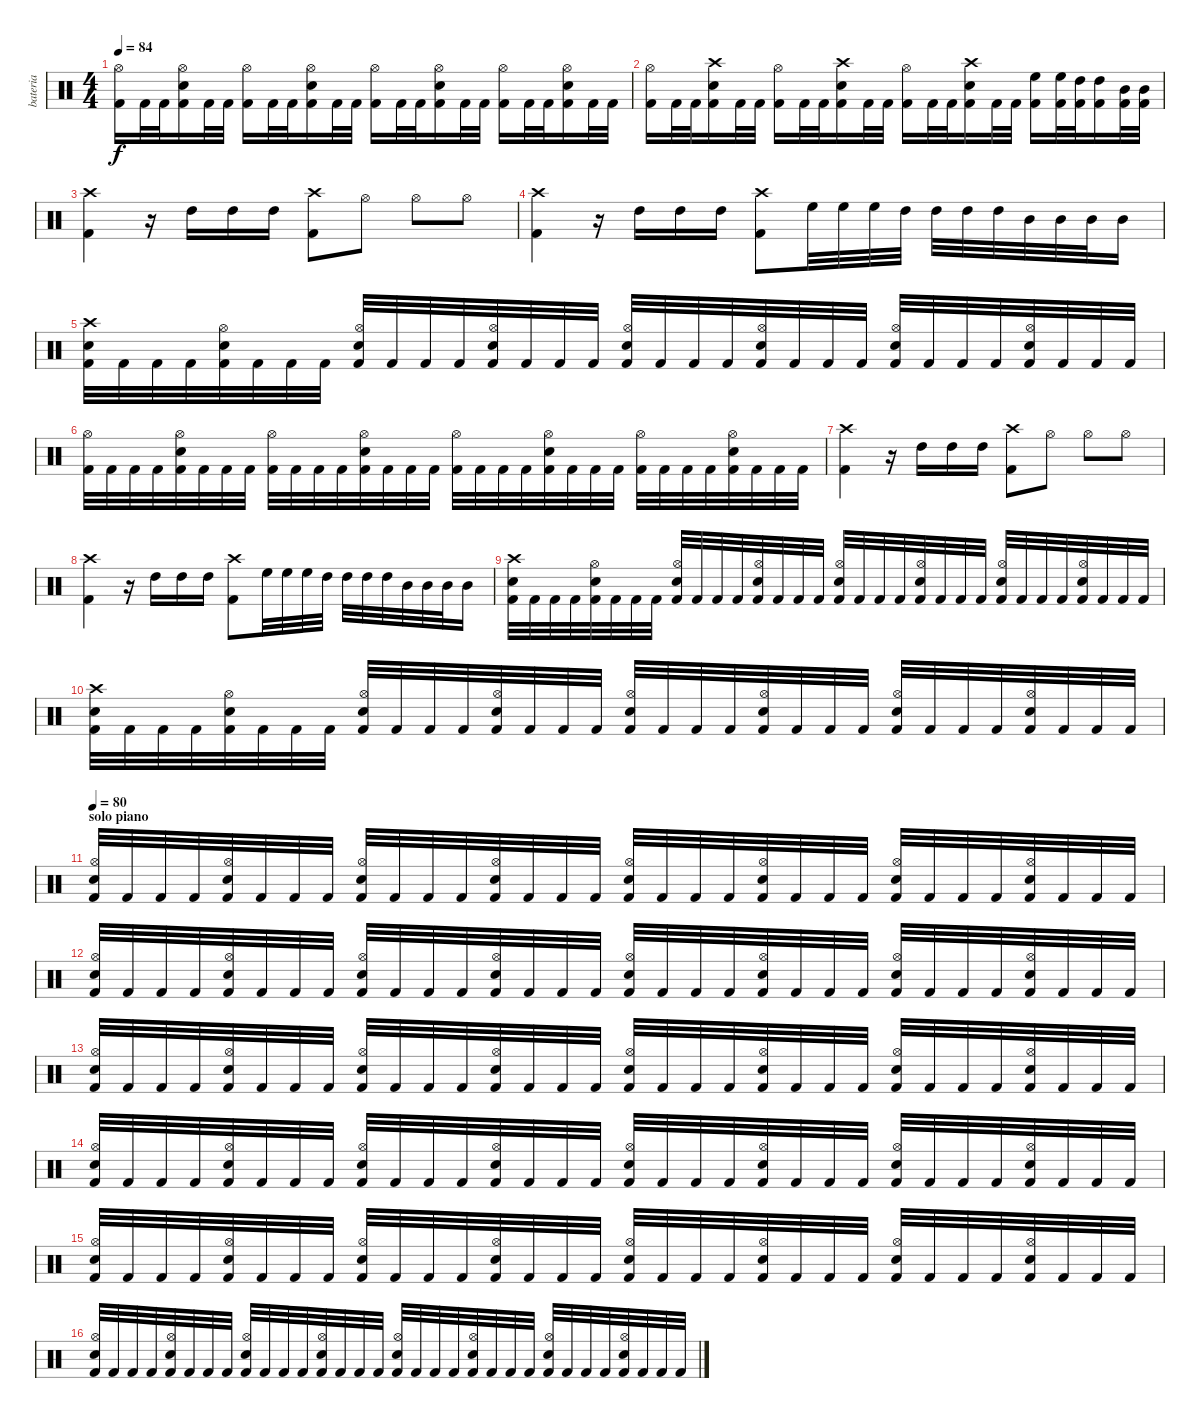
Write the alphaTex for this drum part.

\track ("bateria" "bateria") {instrument percussion}
\staff {score}
\articulation defaults
\ts (4 4)
\tempo 84
\clef neutral
\ks c
("Kick (hit) 2" "Hi-Hat (open)").16{dy f} "Kick (hit) 2".32 "Kick (hit) 2".32 ("Kick (hit) 2" "Electric Snare (hit)" "Hi-Hat (open)").16 "Kick (hit) 2".32 "Kick (hit) 2".32 ("Kick (hit) 2" "Hi-Hat (open)").16 "Kick (hit) 2".32 "Kick (hit) 2".32 ("Kick (hit) 2" "Electric Snare (hit)" "Hi-Hat (open)").16 "Kick (hit) 2".32 "Kick (hit) 2".32 ("Kick (hit) 2" "Hi-Hat (open)").16 "Kick (hit) 2".32 "Kick (hit) 2".32 ("Kick (hit) 2" "Electric Snare (hit)" "Hi-Hat (open)").16 "Kick (hit) 2".32 "Kick (hit) 2".32 ("Kick (hit) 2" "Hi-Hat (open)").16 "Kick (hit) 2".32 "Kick (hit) 2".32 ("Kick (hit) 2" "Electric Snare (hit)" "Hi-Hat (open)").16 "Kick (hit) 2".32 "Kick (hit) 2".32 |
("Kick (hit) 2" "Hi-Hat (open)").16 "Kick (hit) 2".32 "Kick (hit) 2".32 ("Kick (hit) 2" "Electric Snare (hit)" "Crash high (hit)").16 "Kick (hit) 2".32 "Kick (hit) 2".32 ("Kick (hit) 2" "Hi-Hat (open)").16 "Kick (hit) 2".32 "Kick (hit) 2".32 ("Kick (hit) 2" "Electric Snare (hit)" "Crash high (hit)").16 "Kick (hit) 2".32 "Kick (hit) 2".32 ("Kick (hit) 2" "Hi-Hat (open)").16 "Kick (hit) 2".32 "Kick (hit) 2".32 ("Kick (hit) 2" "Electric Snare (hit)" "Crash high (hit)").16 "Kick (hit) 2".32 "Kick (hit) 2".32 ("Kick (hit) 2" "High Floor Tom (hit)").16 ("Kick (hit) 2" "High Floor Tom (hit)").32 ("Kick (hit) 2" "High Tom (hit)").32 ("Kick (hit) 2" "High Tom (hit)").16 ("Kick (hit) 2" "Mid Tom (hit)").32 ("Kick (hit) 2" "Mid Tom (hit)").32 |
("Kick (hit) 2" "Crash high (hit)").4 r.16 "High Tom (hit)".16 "High Tom (hit)".16 "High Tom (hit)".16 ("Kick (hit) 2" "Crash high (hit)").8 "Hi-Hat (open)".8 "Hi-Hat (open)".8 "Hi-Hat (open)".8 |
("Kick (hit) 2" "Crash high (hit)").4 r.16 "High Tom (hit)".16 "High Tom (hit)".16 "High Tom (hit)".16 ("Kick (hit) 2" "Crash high (hit)").8 "High Floor Tom (hit)".32 "High Floor Tom (hit)".32 "High Floor Tom (hit)".32 "High Tom (hit)".32 "High Tom (hit)".32 "High Tom (hit)".32 "High Tom (hit)".32 "Mid Tom (hit)".32 "Mid Tom (hit)".32 "Mid Tom (hit)".32 "Mid Tom (hit)".16 |
("Kick (hit) 2" "Electric Snare (hit)" "Crash high (hit)").32 "Kick (hit) 2".32 "Kick (hit) 2".32 "Kick (hit) 2".32 ("Kick (hit) 2" "Electric Snare (hit)" "Hi-Hat (open)").32 "Kick (hit) 2".32 "Kick (hit) 2".32 "Kick (hit) 2".32 ("Kick (hit) 2" "Electric Snare (hit)" "Hi-Hat (open)").32 "Kick (hit) 2".32 "Kick (hit) 2".32 "Kick (hit) 2".32 ("Kick (hit) 2" "Electric Snare (hit)" "Hi-Hat (open)").32 "Kick (hit) 2".32 "Kick (hit) 2".32 "Kick (hit) 2".32 ("Kick (hit) 2" "Electric Snare (hit)" "Hi-Hat (open)").32 "Kick (hit) 2".32 "Kick (hit) 2".32 "Kick (hit) 2".32 ("Kick (hit) 2" "Electric Snare (hit)" "Hi-Hat (open)").32 "Kick (hit) 2".32 "Kick (hit) 2".32 "Kick (hit) 2".32 ("Kick (hit) 2" "Electric Snare (hit)" "Hi-Hat (open)").32 "Kick (hit) 2".32 "Kick (hit) 2".32 "Kick (hit) 2".32 ("Kick (hit) 2" "Electric Snare (hit)" "Hi-Hat (open)").32 "Kick (hit) 2".32 "Kick (hit) 2".32 "Kick (hit) 2".32 |
("Kick (hit) 2" "Hi-Hat (open)").32 "Kick (hit) 2".32 "Kick (hit) 2".32 "Kick (hit) 2".32 ("Kick (hit) 2" "Electric Snare (hit)" "Hi-Hat (open)").32 "Kick (hit) 2".32 "Kick (hit) 2".32 "Kick (hit) 2".32 ("Kick (hit) 2" "Hi-Hat (open)").32 "Kick (hit) 2".32 "Kick (hit) 2".32 "Kick (hit) 2".32 ("Kick (hit) 2" "Electric Snare (hit)" "Hi-Hat (open)").32 "Kick (hit) 2".32 "Kick (hit) 2".32 "Kick (hit) 2".32 ("Kick (hit) 2" "Hi-Hat (open)").32 "Kick (hit) 2".32 "Kick (hit) 2".32 "Kick (hit) 2".32 ("Kick (hit) 2" "Electric Snare (hit)" "Hi-Hat (open)").32 "Kick (hit) 2".32 "Kick (hit) 2".32 "Kick (hit) 2".32 ("Kick (hit) 2" "Hi-Hat (open)").32 "Kick (hit) 2".32 "Kick (hit) 2".32 "Kick (hit) 2".32 ("Kick (hit) 2" "Electric Snare (hit)" "Hi-Hat (open)").32 "Kick (hit) 2".32 "Kick (hit) 2".32 "Kick (hit) 2".32 |
("Kick (hit) 2" "Crash high (hit)").4 r.16 "High Tom (hit)".16 "High Tom (hit)".16 "High Tom (hit)".16 ("Kick (hit) 2" "Crash high (hit)").8 "Hi-Hat (open)".8 "Hi-Hat (open)".8 "Hi-Hat (open)".8 |
("Kick (hit) 2" "Crash high (hit)").4 r.16 "High Tom (hit)".16 "High Tom (hit)".16 "High Tom (hit)".16 ("Kick (hit) 2" "Crash high (hit)").8 "High Floor Tom (hit)".32 "High Floor Tom (hit)".32 "High Floor Tom (hit)".32 "High Tom (hit)".32 "High Tom (hit)".32 "High Tom (hit)".32 "High Tom (hit)".32 "Mid Tom (hit)".32 "Mid Tom (hit)".32 "Mid Tom (hit)".32 "Mid Tom (hit)".16 |
("Kick (hit) 2" "Electric Snare (hit)" "Crash high (hit)").32 "Kick (hit) 2".32 "Kick (hit) 2".32 "Kick (hit) 2".32 ("Kick (hit) 2" "Electric Snare (hit)" "Hi-Hat (open)").32 "Kick (hit) 2".32 "Kick (hit) 2".32 "Kick (hit) 2".32 ("Kick (hit) 2" "Electric Snare (hit)" "Hi-Hat (open)").32 "Kick (hit) 2".32 "Kick (hit) 2".32 "Kick (hit) 2".32 ("Kick (hit) 2" "Electric Snare (hit)" "Hi-Hat (open)").32 "Kick (hit) 2".32 "Kick (hit) 2".32 "Kick (hit) 2".32 ("Kick (hit) 2" "Electric Snare (hit)" "Hi-Hat (open)").32 "Kick (hit) 2".32 "Kick (hit) 2".32 "Kick (hit) 2".32 ("Kick (hit) 2" "Electric Snare (hit)" "Hi-Hat (open)").32 "Kick (hit) 2".32 "Kick (hit) 2".32 "Kick (hit) 2".32 ("Kick (hit) 2" "Electric Snare (hit)" "Hi-Hat (open)").32 "Kick (hit) 2".32 "Kick (hit) 2".32 "Kick (hit) 2".32 ("Kick (hit) 2" "Electric Snare (hit)" "Hi-Hat (open)").32 "Kick (hit) 2".32 "Kick (hit) 2".32 "Kick (hit) 2".32 |
("Kick (hit) 2" "Electric Snare (hit)" "Crash high (hit)").32 "Kick (hit) 2".32 "Kick (hit) 2".32 "Kick (hit) 2".32 ("Kick (hit) 2" "Electric Snare (hit)" "Hi-Hat (open)").32 "Kick (hit) 2".32 "Kick (hit) 2".32 "Kick (hit) 2".32 ("Kick (hit) 2" "Electric Snare (hit)" "Hi-Hat (open)").32 "Kick (hit) 2".32 "Kick (hit) 2".32 "Kick (hit) 2".32 ("Kick (hit) 2" "Electric Snare (hit)" "Hi-Hat (open)").32 "Kick (hit) 2".32 "Kick (hit) 2".32 "Kick (hit) 2".32 ("Kick (hit) 2" "Electric Snare (hit)" "Hi-Hat (open)").32 "Kick (hit) 2".32 "Kick (hit) 2".32 "Kick (hit) 2".32 ("Kick (hit) 2" "Electric Snare (hit)" "Hi-Hat (open)").32 "Kick (hit) 2".32 "Kick (hit) 2".32 "Kick (hit) 2".32 ("Kick (hit) 2" "Electric Snare (hit)" "Hi-Hat (open)").32 "Kick (hit) 2".32 "Kick (hit) 2".32 "Kick (hit) 2".32 ("Kick (hit) 2" "Electric Snare (hit)" "Hi-Hat (open)").32 "Kick (hit) 2".32 "Kick (hit) 2".32 "Kick (hit) 2".32 |
\section ("" "solo piano")
\tempo 80
("Kick (hit) 2" "Electric Snare (hit)" "Hi-Hat (open)").32 "Kick (hit) 2".32 "Kick (hit) 2".32 "Kick (hit) 2".32 ("Kick (hit) 2" "Electric Snare (hit)" "Hi-Hat (open)").32 "Kick (hit) 2".32 "Kick (hit) 2".32 "Kick (hit) 2".32 ("Kick (hit) 2" "Electric Snare (hit)" "Hi-Hat (open)").32 "Kick (hit) 2".32 "Kick (hit) 2".32 "Kick (hit) 2".32 ("Kick (hit) 2" "Electric Snare (hit)" "Hi-Hat (open)").32 "Kick (hit) 2".32 "Kick (hit) 2".32 "Kick (hit) 2".32 ("Kick (hit) 2" "Electric Snare (hit)" "Hi-Hat (open)").32 "Kick (hit) 2".32 "Kick (hit) 2".32 "Kick (hit) 2".32 ("Kick (hit) 2" "Electric Snare (hit)" "Hi-Hat (open)").32 "Kick (hit) 2".32 "Kick (hit) 2".32 "Kick (hit) 2".32 ("Kick (hit) 2" "Electric Snare (hit)" "Hi-Hat (open)").32 "Kick (hit) 2".32 "Kick (hit) 2".32 "Kick (hit) 2".32 ("Kick (hit) 2" "Electric Snare (hit)" "Hi-Hat (open)").32 "Kick (hit) 2".32 "Kick (hit) 2".32 "Kick (hit) 2".32 |
("Kick (hit) 2" "Electric Snare (hit)" "Hi-Hat (open)").32 "Kick (hit) 2".32 "Kick (hit) 2".32 "Kick (hit) 2".32 ("Kick (hit) 2" "Electric Snare (hit)" "Hi-Hat (open)").32 "Kick (hit) 2".32 "Kick (hit) 2".32 "Kick (hit) 2".32 ("Kick (hit) 2" "Electric Snare (hit)" "Hi-Hat (open)").32 "Kick (hit) 2".32 "Kick (hit) 2".32 "Kick (hit) 2".32 ("Kick (hit) 2" "Electric Snare (hit)" "Hi-Hat (open)").32 "Kick (hit) 2".32 "Kick (hit) 2".32 "Kick (hit) 2".32 ("Kick (hit) 2" "Electric Snare (hit)" "Hi-Hat (open)").32 "Kick (hit) 2".32 "Kick (hit) 2".32 "Kick (hit) 2".32 ("Kick (hit) 2" "Electric Snare (hit)" "Hi-Hat (open)").32 "Kick (hit) 2".32 "Kick (hit) 2".32 "Kick (hit) 2".32 ("Kick (hit) 2" "Electric Snare (hit)" "Hi-Hat (open)").32 "Kick (hit) 2".32 "Kick (hit) 2".32 "Kick (hit) 2".32 ("Kick (hit) 2" "Electric Snare (hit)" "Hi-Hat (open)").32 "Kick (hit) 2".32 "Kick (hit) 2".32 "Kick (hit) 2".32 |
("Kick (hit) 2" "Electric Snare (hit)" "Hi-Hat (open)").32 "Kick (hit) 2".32 "Kick (hit) 2".32 "Kick (hit) 2".32 ("Kick (hit) 2" "Electric Snare (hit)" "Hi-Hat (open)").32 "Kick (hit) 2".32 "Kick (hit) 2".32 "Kick (hit) 2".32 ("Kick (hit) 2" "Electric Snare (hit)" "Hi-Hat (open)").32 "Kick (hit) 2".32 "Kick (hit) 2".32 "Kick (hit) 2".32 ("Kick (hit) 2" "Electric Snare (hit)" "Hi-Hat (open)").32 "Kick (hit) 2".32 "Kick (hit) 2".32 "Kick (hit) 2".32 ("Kick (hit) 2" "Electric Snare (hit)" "Hi-Hat (open)").32 "Kick (hit) 2".32 "Kick (hit) 2".32 "Kick (hit) 2".32 ("Kick (hit) 2" "Electric Snare (hit)" "Hi-Hat (open)").32 "Kick (hit) 2".32 "Kick (hit) 2".32 "Kick (hit) 2".32 ("Kick (hit) 2" "Electric Snare (hit)" "Hi-Hat (open)").32 "Kick (hit) 2".32 "Kick (hit) 2".32 "Kick (hit) 2".32 ("Kick (hit) 2" "Electric Snare (hit)" "Hi-Hat (open)").32 "Kick (hit) 2".32 "Kick (hit) 2".32 "Kick (hit) 2".32 |
("Kick (hit) 2" "Electric Snare (hit)" "Hi-Hat (open)").32 "Kick (hit) 2".32 "Kick (hit) 2".32 "Kick (hit) 2".32 ("Kick (hit) 2" "Electric Snare (hit)" "Hi-Hat (open)").32 "Kick (hit) 2".32 "Kick (hit) 2".32 "Kick (hit) 2".32 ("Kick (hit) 2" "Electric Snare (hit)" "Hi-Hat (open)").32 "Kick (hit) 2".32 "Kick (hit) 2".32 "Kick (hit) 2".32 ("Kick (hit) 2" "Electric Snare (hit)" "Hi-Hat (open)").32 "Kick (hit) 2".32 "Kick (hit) 2".32 "Kick (hit) 2".32 ("Kick (hit) 2" "Electric Snare (hit)" "Hi-Hat (open)").32 "Kick (hit) 2".32 "Kick (hit) 2".32 "Kick (hit) 2".32 ("Kick (hit) 2" "Electric Snare (hit)" "Hi-Hat (open)").32 "Kick (hit) 2".32 "Kick (hit) 2".32 "Kick (hit) 2".32 ("Kick (hit) 2" "Electric Snare (hit)" "Hi-Hat (open)").32 "Kick (hit) 2".32 "Kick (hit) 2".32 "Kick (hit) 2".32 ("Kick (hit) 2" "Electric Snare (hit)" "Hi-Hat (open)").32 "Kick (hit) 2".32 "Kick (hit) 2".32 "Kick (hit) 2".32 |
("Kick (hit) 2" "Electric Snare (hit)" "Hi-Hat (open)").32 "Kick (hit) 2".32 "Kick (hit) 2".32 "Kick (hit) 2".32 ("Kick (hit) 2" "Electric Snare (hit)" "Hi-Hat (open)").32 "Kick (hit) 2".32 "Kick (hit) 2".32 "Kick (hit) 2".32 ("Kick (hit) 2" "Electric Snare (hit)" "Hi-Hat (open)").32 "Kick (hit) 2".32 "Kick (hit) 2".32 "Kick (hit) 2".32 ("Kick (hit) 2" "Electric Snare (hit)" "Hi-Hat (open)").32 "Kick (hit) 2".32 "Kick (hit) 2".32 "Kick (hit) 2".32 ("Kick (hit) 2" "Electric Snare (hit)" "Hi-Hat (open)").32 "Kick (hit) 2".32 "Kick (hit) 2".32 "Kick (hit) 2".32 ("Kick (hit) 2" "Electric Snare (hit)" "Hi-Hat (open)").32 "Kick (hit) 2".32 "Kick (hit) 2".32 "Kick (hit) 2".32 ("Kick (hit) 2" "Electric Snare (hit)" "Hi-Hat (open)").32 "Kick (hit) 2".32 "Kick (hit) 2".32 "Kick (hit) 2".32 ("Kick (hit) 2" "Electric Snare (hit)" "Hi-Hat (open)").32 "Kick (hit) 2".32 "Kick (hit) 2".32 "Kick (hit) 2".32 |
("Kick (hit) 2" "Electric Snare (hit)" "Hi-Hat (open)").32 "Kick (hit) 2".32 "Kick (hit) 2".32 "Kick (hit) 2".32 ("Kick (hit) 2" "Electric Snare (hit)" "Hi-Hat (open)").32 "Kick (hit) 2".32 "Kick (hit) 2".32 "Kick (hit) 2".32 ("Kick (hit) 2" "Electric Snare (hit)" "Hi-Hat (open)").32 "Kick (hit) 2".32 "Kick (hit) 2".32 "Kick (hit) 2".32 ("Kick (hit) 2" "Electric Snare (hit)" "Hi-Hat (open)").32 "Kick (hit) 2".32 "Kick (hit) 2".32 "Kick (hit) 2".32 ("Kick (hit) 2" "Electric Snare (hit)" "Hi-Hat (open)").32 "Kick (hit) 2".32 "Kick (hit) 2".32 "Kick (hit) 2".32 ("Kick (hit) 2" "Electric Snare (hit)" "Hi-Hat (open)").32 "Kick (hit) 2".32 "Kick (hit) 2".32 "Kick (hit) 2".32 ("Kick (hit) 2" "Electric Snare (hit)" "Hi-Hat (open)").32 "Kick (hit) 2".32 "Kick (hit) 2".32 "Kick (hit) 2".32 ("Kick (hit) 2" "Electric Snare (hit)" "Hi-Hat (open)").32 "Kick (hit) 2".32 "Kick (hit) 2".32 "Kick (hit) 2".32
